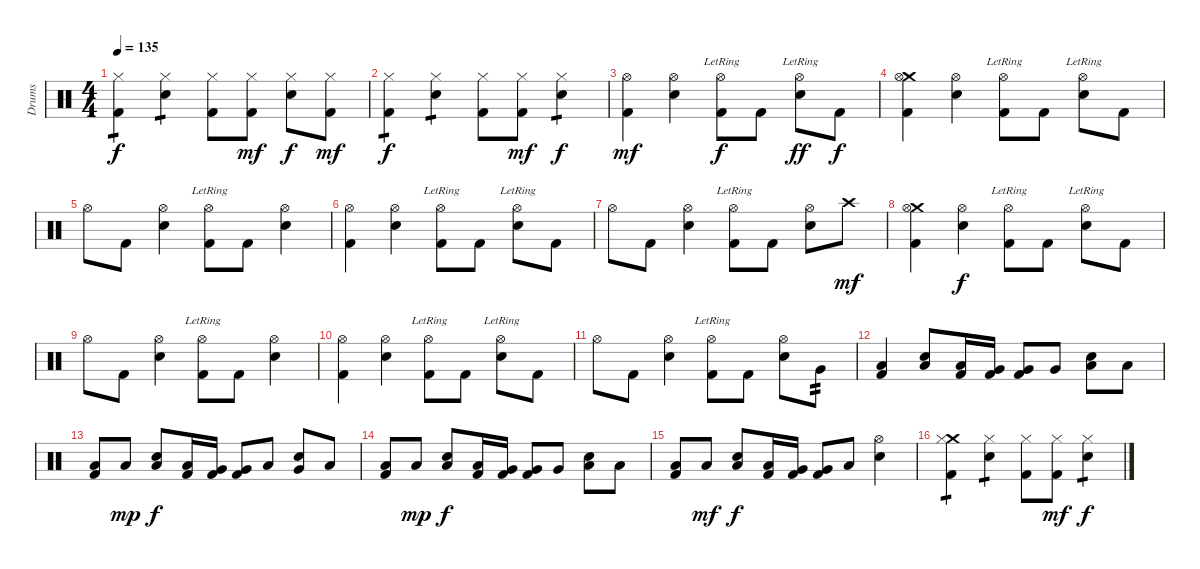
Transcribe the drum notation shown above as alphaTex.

\track ("Drums" "Drums") {instrument percussion}
\staff {score}
\articulation defaults
\ts (4 4)
\tempo 135
\clef neutral
\ks c
("Hi-Hat (closed)" "Kick (hit) 2").4{tp 1 dy f} ("Hi-Hat (closed)" "Electric Snare (hit)").4{tp 1} ("Hi-Hat (closed)" "Kick (hit) 2").8 ("Hi-Hat (closed)" "Kick (hit) 2").8{dy mf} ("Hi-Hat (closed)" "Electric Snare (hit)").8{dy f} ("Hi-Hat (closed)" "Kick (hit) 2").8{dy mf} |
("Hi-Hat (closed)" "Kick (hit) 2").4{tp 1 dy f} ("Hi-Hat (closed)" "Electric Snare (hit)").4{tp 1} ("Hi-Hat (closed)" "Kick (hit) 2").8 ("Hi-Hat (closed)" "Kick (hit) 2").8{dy mf} ("Hi-Hat (closed)" "Electric Snare (hit)").4{tp 1 dy f} |
("Hi-Hat (open)" "Kick (hit) 2").4{dy mf} ("Hi-Hat (open)" "Electric Snare (hit)").4 ("Hi-Hat (open)"{lr} "Kick (hit) 2").8{dy f} "Kick (hit) 2".8 ("Hi-Hat (open)"{lr} "Electric Snare (hit)").8{dy ff} "Kick (hit) 2".8{dy f} |
("Crash medium (hit)" "Hi-Hat (open)" "Kick (hit) 2").4 ("Hi-Hat (open)" "Electric Snare (hit)").4 ("Hi-Hat (open)"{lr} "Kick (hit) 2").8 "Kick (hit) 2".8 ("Hi-Hat (open)"{lr} "Electric Snare (hit)").8 "Kick (hit) 2".8 |
"Hi-Hat (open)".8 "Kick (hit) 2".8 ("Hi-Hat (open)" "Electric Snare (hit)").4 ("Hi-Hat (open)"{lr} "Kick (hit) 2").8 "Kick (hit) 2".8 ("Hi-Hat (open)" "Electric Snare (hit)").4 |
("Hi-Hat (open)" "Kick (hit) 2").4 ("Hi-Hat (open)" "Electric Snare (hit)").4 ("Hi-Hat (open)"{lr} "Kick (hit) 2").8 "Kick (hit) 2".8 ("Hi-Hat (open)"{lr} "Electric Snare (hit)").8 "Kick (hit) 2".8 |
"Hi-Hat (open)".8 "Kick (hit) 2".8 ("Hi-Hat (open)" "Electric Snare (hit)").4 ("Hi-Hat (open)"{lr} "Kick (hit) 2").8 "Kick (hit) 2".8 ("Hi-Hat (open)" "Electric Snare (hit)").8 "Crash high (hit)".8{dy mf} |
("Crash medium (hit)" "Hi-Hat (open)" "Kick (hit) 2").4 ("Hi-Hat (open)" "Electric Snare (hit)").4{dy f} ("Hi-Hat (open)"{lr} "Kick (hit) 2").8 "Kick (hit) 2".8 ("Hi-Hat (open)"{lr} "Electric Snare (hit)").8 "Kick (hit) 2".8 |
"Hi-Hat (open)".8 "Kick (hit) 2".8 ("Hi-Hat (open)" "Electric Snare (hit)").4 ("Hi-Hat (open)"{lr} "Kick (hit) 2").8 "Kick (hit) 2".8 ("Hi-Hat (open)" "Electric Snare (hit)").4 |
("Hi-Hat (open)" "Kick (hit) 2").4 ("Hi-Hat (open)" "Electric Snare (hit)").4 ("Hi-Hat (open)"{lr} "Kick (hit) 2").8 "Kick (hit) 2".8 ("Hi-Hat (open)"{lr} "Electric Snare (hit)").8 "Kick (hit) 2".8 |
"Hi-Hat (open)".8 "Kick (hit) 2".8 ("Hi-Hat (open)" "Electric Snare (hit)").4 ("Hi-Hat (open)"{lr} "Kick (hit) 2").8 "Kick (hit) 2".8 ("Hi-Hat (open)" "Electric Snare (hit)").8 "Very Low Tom (hit)".8{tp 2} |
("Low Tom (hit)" "Kick (hit) 2").4 ("Low Tom (hit)" "Electric Snare (hit)").8 ("Low Tom (hit)" "Kick (hit) 2").16 ("Very Low Tom (hit)" "Kick (hit) 2").16 ("Very Low Tom (hit)" "Kick (hit) 2").8 "Very Low Tom (hit)".8 ("Low Tom (hit)" "Electric Snare (hit)").8 "Low Floor Tom (hit)".8 |
("Low Tom (hit)" "Kick (hit) 2").8 "Low Tom (hit)".8{dy mp} ("Low Tom (hit)" "Electric Snare (hit)").8{dy f} ("Low Tom (hit)" "Kick (hit) 2").16 ("Very Low Tom (hit)" "Kick (hit) 2").16 ("Very Low Tom (hit)" "Kick (hit) 2").8 "Low Tom (hit)".8 ("Very Low Tom (hit)" "Electric Snare (hit)").8 "Low Floor Tom (hit)".8 |
("Low Tom (hit)" "Kick (hit) 2").8 "Low Tom (hit)".8{dy mp} ("Low Tom (hit)" "Electric Snare (hit)").8{dy f} ("Low Tom (hit)" "Kick (hit) 2").16 ("Very Low Tom (hit)" "Kick (hit) 2").16 ("Very Low Tom (hit)" "Kick (hit) 2").8 "Very Low Tom (hit)".8 ("Low Tom (hit)" "Electric Snare (hit)").8 "Low Floor Tom (hit)".8 |
("Low Tom (hit)" "Kick (hit) 2").8 "Low Tom (hit)".8{dy mf} ("Low Tom (hit)" "Electric Snare (hit)").8{dy f} ("Low Tom (hit)" "Kick (hit) 2").16 ("Very Low Tom (hit)" "Kick (hit) 2").16 ("Very Low Tom (hit)" "Kick (hit) 2").8 "Low Floor Tom (hit)".8 ("Hi-Hat (open)" "Electric Snare (hit)").4 |
("Crash medium (hit)" "Hi-Hat (closed)" "Kick (hit) 2").4{tp 1} ("Hi-Hat (closed)" "Electric Snare (hit)").4{tp 1} ("Hi-Hat (closed)" "Kick (hit) 2").8 ("Hi-Hat (closed)" "Kick (hit) 2").8{dy mf} ("Hi-Hat (closed)" "Electric Snare (hit)").4{tp 1 dy f}
